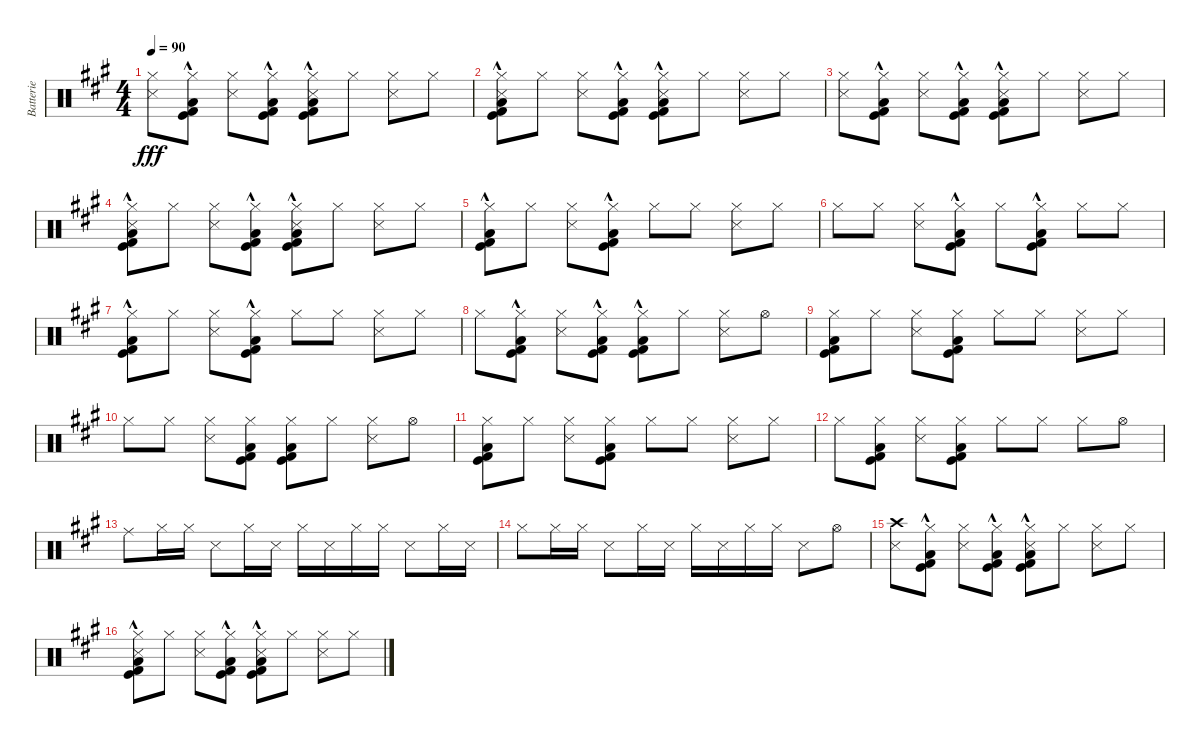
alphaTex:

\track ("Batterie" "Batterie") {instrument percussion}
\staff {score}
\articulation defaults
\ts (4 4)
\tempo 90
\clef neutral
\ks a
("Hi-Hat (closed)" "Snare (side stick) 3").8{dy fff} ("Hi-Hat (closed)" "Kick (hit)"{hac} "Kick (hit) 2"{hac} "Low Floor Tom (hit)"{hac}).8 ("Hi-Hat (closed)" "Snare (side stick) 3").8 ("Hi-Hat (closed)" "Kick (hit)"{hac} "Kick (hit) 2"{hac} "Low Floor Tom (hit)"{hac}).8 ("Hi-Hat (closed)" "Snare (side stick) 3" "Kick (hit)"{hac} "Kick (hit) 2"{hac} "Low Floor Tom (hit)"{hac}).8 "Hi-Hat (closed)".8 ("Hi-Hat (closed)" "Snare (side stick) 3").8 "Hi-Hat (closed)".8 |
("Hi-Hat (closed)" "Snare (side stick) 3" "Kick (hit)"{hac} "Kick (hit) 2"{hac} "Low Floor Tom (hit)"{hac}).8 "Hi-Hat (closed)".8 ("Hi-Hat (closed)" "Snare (side stick) 3").8 ("Hi-Hat (closed)" "Kick (hit)"{hac} "Kick (hit) 2"{hac} "Low Floor Tom (hit)"{hac}).8 ("Hi-Hat (closed)" "Snare (side stick) 3" "Kick (hit)"{hac} "Kick (hit) 2"{hac} "Low Floor Tom (hit)"{hac}).8 "Hi-Hat (closed)".8 ("Hi-Hat (closed)" "Snare (side stick) 3").8 "Hi-Hat (closed)".8 |
("Hi-Hat (closed)" "Snare (side stick) 3").8 ("Hi-Hat (closed)" "Kick (hit)"{hac} "Kick (hit) 2"{hac} "Low Floor Tom (hit)"{hac}).8 ("Hi-Hat (closed)" "Snare (side stick) 3").8 ("Hi-Hat (closed)" "Kick (hit)"{hac} "Kick (hit) 2"{hac} "Low Floor Tom (hit)"{hac}).8 ("Hi-Hat (closed)" "Snare (side stick) 3" "Kick (hit)"{hac} "Kick (hit) 2"{hac} "Low Floor Tom (hit)"{hac}).8 "Hi-Hat (closed)".8 ("Hi-Hat (closed)" "Snare (side stick) 3").8 "Hi-Hat (closed)".8 |
("Hi-Hat (closed)" "Snare (side stick) 3" "Kick (hit)"{hac} "Kick (hit) 2"{hac} "Low Floor Tom (hit)"{hac}).8 "Hi-Hat (closed)".8 ("Hi-Hat (closed)" "Snare (side stick) 3").8 ("Hi-Hat (closed)" "Kick (hit)"{hac} "Kick (hit) 2"{hac} "Low Floor Tom (hit)"{hac}).8 ("Hi-Hat (closed)" "Snare (side stick) 3" "Kick (hit)"{hac} "Kick (hit) 2"{hac} "Low Floor Tom (hit)"{hac}).8 "Hi-Hat (closed)".8 ("Hi-Hat (closed)" "Snare (side stick) 3").8 "Hi-Hat (closed)".8 |
("Hi-Hat (closed)" "Kick (hit)"{hac} "Kick (hit) 2"{hac} "Low Floor Tom (hit)"{hac}).8 "Hi-Hat (closed)".8 ("Hi-Hat (closed)" "Snare (side stick) 3").8 ("Hi-Hat (closed)" "Kick (hit)"{hac} "Kick (hit) 2"{hac} "Low Floor Tom (hit)"{hac}).8 "Hi-Hat (closed)".8 "Hi-Hat (closed)".8 ("Hi-Hat (closed)" "Snare (side stick) 3").8 "Hi-Hat (closed)".8 |
"Hi-Hat (closed)".8 "Hi-Hat (closed)".8 ("Hi-Hat (closed)" "Snare (side stick) 3").8 ("Hi-Hat (closed)" "Kick (hit)"{hac} "Kick (hit) 2"{hac} "Low Floor Tom (hit)"{hac}).8 "Hi-Hat (closed)".8 ("Hi-Hat (closed)" "Kick (hit)"{hac} "Kick (hit) 2"{hac} "Low Floor Tom (hit)"{hac}).8 "Hi-Hat (closed)".8 "Hi-Hat (closed)".8 |
("Hi-Hat (closed)" "Kick (hit)"{hac} "Kick (hit) 2"{hac} "Low Floor Tom (hit)"{hac}).8 "Hi-Hat (closed)".8 ("Hi-Hat (closed)" "Snare (side stick) 3").8 ("Hi-Hat (closed)" "Kick (hit)"{hac} "Kick (hit) 2"{hac} "Low Floor Tom (hit)"{hac}).8 "Hi-Hat (closed)".8 "Hi-Hat (closed)".8 ("Hi-Hat (closed)" "Snare (side stick) 3").8 "Hi-Hat (closed)".8 |
"Hi-Hat (closed)".8 ("Hi-Hat (closed)" "Kick (hit)"{hac} "Kick (hit) 2"{hac} "Low Floor Tom (hit)"{hac}).8 ("Hi-Hat (closed)" "Snare (side stick) 3").8 ("Hi-Hat (closed)" "Kick (hit)"{hac} "Kick (hit) 2"{hac} "Low Floor Tom (hit)"{hac}).8 ("Hi-Hat (closed)" "Kick (hit)"{hac} "Kick (hit) 2"{hac} "Low Floor Tom (hit)"{hac}).8 "Hi-Hat (closed)".8 ("Hi-Hat (closed)" "Snare (side stick) 3").8 "Hi-Hat (open)".8 |
("Hi-Hat (closed)" "Kick (hit)" "Kick (hit) 2" "Low Floor Tom (hit)").8 "Hi-Hat (closed)".8 ("Hi-Hat (closed)" "Snare (side stick) 3").8 ("Hi-Hat (closed)" "Kick (hit)" "Kick (hit) 2" "Low Floor Tom (hit)").8 "Hi-Hat (closed)".8 "Hi-Hat (closed)".8 ("Hi-Hat (closed)" "Snare (side stick) 3").8 "Hi-Hat (closed)".8 |
"Hi-Hat (closed)".8 "Hi-Hat (closed)".8 ("Hi-Hat (closed)" "Snare (side stick) 3").8 ("Hi-Hat (closed)" "Kick (hit)" "Kick (hit) 2" "Low Floor Tom (hit)").8 ("Hi-Hat (closed)" "Kick (hit) 2" "Kick (hit)" "Low Floor Tom (hit)").8 "Hi-Hat (closed)".8 ("Hi-Hat (closed)" "Snare (side stick) 3").8 "Hi-Hat (open)".8 |
("Hi-Hat (closed)" "Kick (hit)" "Kick (hit) 2" "Low Floor Tom (hit)").8 "Hi-Hat (closed)".8 ("Hi-Hat (closed)" "Snare (side stick) 3").8 ("Hi-Hat (closed)" "Kick (hit)" "Kick (hit) 2" "Low Floor Tom (hit)").8 "Hi-Hat (closed)".8 "Hi-Hat (closed)".8 ("Hi-Hat (closed)" "Snare (side stick) 3").8 "Hi-Hat (closed)".8 |
"Hi-Hat (closed)".8 ("Hi-Hat (closed)" "Kick (hit)" "Kick (hit) 2" "Low Floor Tom (hit)").8 ("Hi-Hat (closed)" "Snare (side stick) 3").8 ("Hi-Hat (closed)" "Kick (hit)" "Kick (hit) 2" "Low Floor Tom (hit)").8 "Hi-Hat (closed)".8 "Hi-Hat (closed)".8 "Hi-Hat (closed)".8 "Hi-Hat (open)".8 |
"Ride (middle)".8 "Hi-Hat (closed)".16 "Hi-Hat (closed)".16 "Snare (side stick) 3".8 "Hi-Hat (closed)".16 "Snare (side stick) 3".16 "Hi-Hat (closed)".16 "Snare (side stick) 3".16 "Hi-Hat (closed)".16 "Hi-Hat (closed)".16 "Snare (side stick) 3".8 "Hi-Hat (closed)".16 "Snare (side stick) 3".16 |
"Hi-Hat (closed)".8 "Hi-Hat (closed)".16 "Hi-Hat (closed)".16 "Snare (side stick) 3".8 "Hi-Hat (closed)".16 "Snare (side stick) 3".16 "Hi-Hat (closed)".16 "Snare (side stick) 3".16 "Hi-Hat (closed)".16 "Hi-Hat (closed)".16 "Snare (side stick) 3".8 "Hi-Hat (open)".8 |
("Crash high (hit)" "Snare (side stick) 3").8 ("Hi-Hat (closed)" "Kick (hit)"{hac} "Kick (hit) 2"{hac} "Low Floor Tom (hit)"{hac}).8 ("Hi-Hat (closed)" "Snare (side stick) 3").8 ("Hi-Hat (closed)" "Kick (hit)"{hac} "Kick (hit) 2"{hac} "Low Floor Tom (hit)"{hac}).8 ("Hi-Hat (closed)" "Snare (side stick) 3" "Kick (hit)"{hac} "Kick (hit) 2"{hac} "Low Floor Tom (hit)"{hac}).8 "Hi-Hat (closed)".8 ("Hi-Hat (closed)" "Snare (side stick) 3").8 "Hi-Hat (closed)".8 |
("Hi-Hat (closed)" "Snare (side stick) 3" "Kick (hit)"{hac} "Kick (hit) 2"{hac} "Low Floor Tom (hit)"{hac}).8 "Hi-Hat (closed)".8 ("Hi-Hat (closed)" "Snare (side stick) 3").8 ("Hi-Hat (closed)" "Kick (hit)"{hac} "Kick (hit) 2"{hac} "Low Floor Tom (hit)"{hac}).8 ("Hi-Hat (closed)" "Snare (side stick) 3" "Kick (hit)"{hac} "Kick (hit) 2"{hac} "Low Floor Tom (hit)"{hac}).8 "Hi-Hat (closed)".8 ("Hi-Hat (closed)" "Snare (side stick) 3").8 "Hi-Hat (closed)".8
